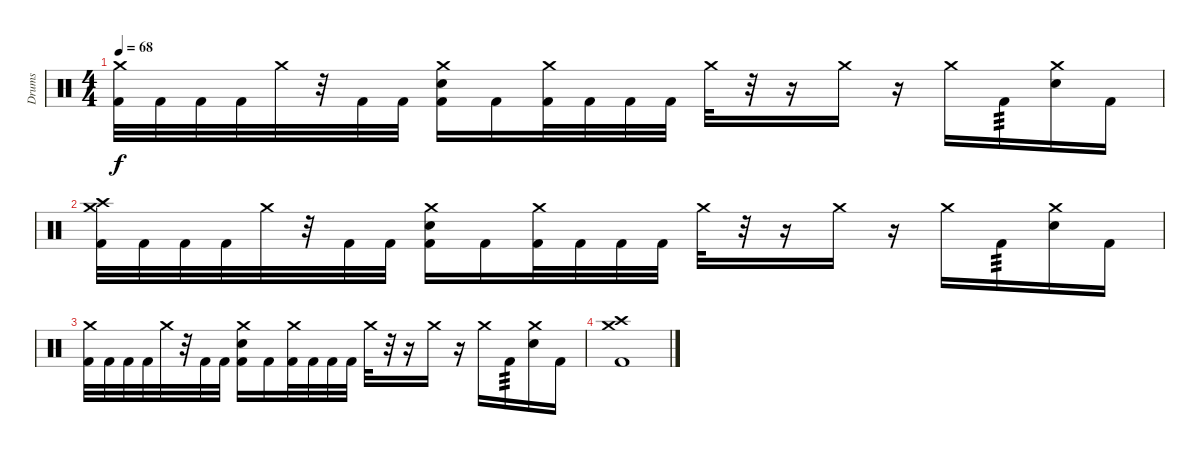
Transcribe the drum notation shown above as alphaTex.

\track ("Drums" "Drums") {instrument percussion}
\staff {score}
\articulation defaults
\ts (4 4)
\tempo 68
\clef neutral
\ks c
("Crash medium (hit)" "Kick (hit) 2").32{dy f} "Kick (hit) 2".32 "Kick (hit) 2".32 "Kick (hit) 2".32 "Crash medium (hit)".32 r.32 "Kick (hit) 2".32 "Kick (hit) 2".32 ("Crash medium (hit)" "Electric Snare (hit)" "Kick (hit) 2").16 "Kick (hit) 2".16 ("Crash medium (hit)" "Kick (hit) 2").32 "Kick (hit) 2".32 "Kick (hit) 2".32 "Kick (hit) 2".32 "Crash medium (hit)".32 r.32 r.16 "Crash medium (hit)".16 r.16 "Crash medium (hit)".16 "Kick (hit) 2".16{tp 3} ("Crash medium (hit)" "Electric Snare (hit)").16 "Kick (hit) 2".16 |
("Crash medium (hit)" "Crash high (hit)" "Kick (hit) 2").32 "Kick (hit) 2".32 "Kick (hit) 2".32 "Kick (hit) 2".32 "Crash medium (hit)".32 r.32 "Kick (hit) 2".32 "Kick (hit) 2".32 ("Crash medium (hit)" "Electric Snare (hit)" "Kick (hit) 2").16 "Kick (hit) 2".16 ("Crash medium (hit)" "Kick (hit) 2").32 "Kick (hit) 2".32 "Kick (hit) 2".32 "Kick (hit) 2".32 "Crash medium (hit)".32 r.32 r.16 "Crash medium (hit)".16 r.16 "Crash medium (hit)".16 "Kick (hit) 2".16{tp 3} ("Crash medium (hit)" "Electric Snare (hit)").16 "Kick (hit) 2".16 |
("Crash medium (hit)" "Kick (hit) 2").32 "Kick (hit) 2".32 "Kick (hit) 2".32 "Kick (hit) 2".32 "Crash medium (hit)".32 r.32 "Kick (hit) 2".32 "Kick (hit) 2".32 ("Crash medium (hit)" "Electric Snare (hit)" "Kick (hit) 2").16 "Kick (hit) 2".16 ("Crash medium (hit)" "Kick (hit) 2").32 "Kick (hit) 2".32 "Kick (hit) 2".32 "Kick (hit) 2".32 "Crash medium (hit)".32 r.32 r.16 "Crash medium (hit)".16 r.16 "Crash medium (hit)".16 "Kick (hit) 2".16{tp 3} ("Crash medium (hit)" "Electric Snare (hit)").16 "Kick (hit) 2".16 |
("Crash high (hit)" "Crash medium (hit)" "Kick (hit) 2").1
